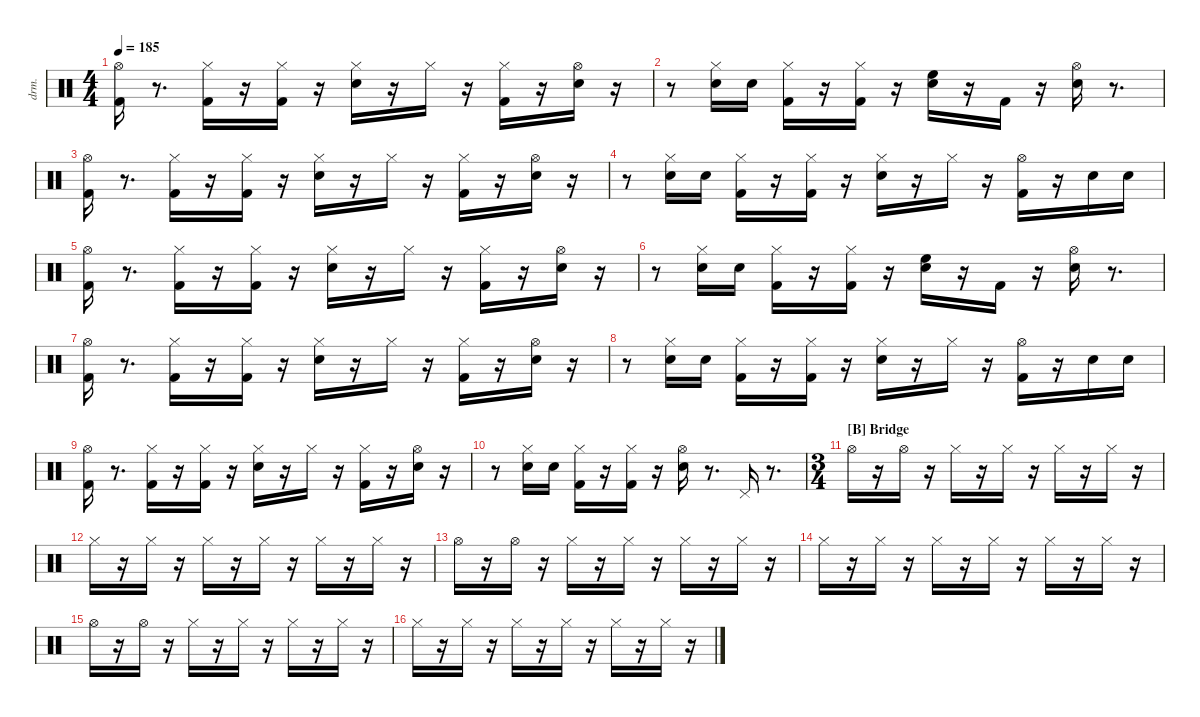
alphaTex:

\defaultSystemsLayout 4
\hideDynamics
\bracketExtendMode nobrackets
\otherSystemsTrackNameOrientation horizontal
\track ("drums" "drm.") {instrument percussion}
\staff {score}
\articulation defaults
\ts (4 4)
\tempo 185
\clef neutral
\ks aminor
("Kick (hit) 2" "Hi-Hat (open)"{acc #}).16{dy ff beam Down} r.8{d beam Down} ("Kick (hit) 2" "Hi-Hat (closed)"{acc #}).16{beam Down} r.16{beam Down} ("Kick (hit) 2" "Hi-Hat (closed)"{acc #}).16{dy pp beam Down} r.16{beam Down} ("Snare (hit) 2" "Hi-Hat (closed)"{acc #}).16{dy ff beam Down} r.16{beam Down} "Hi-Hat (closed)"{acc #}.16{dy ppp beam Down} r.16{beam Down} ("Kick (hit) 2" "Hi-Hat (closed)"{acc #}).16{dy ff beam Down} r.16{beam Down} ("Snare (hit) 2" "Hi-Hat (open)"{acc #}).16{beam Down} r.16{beam Down} |
r.8{beam Down} ("Snare (hit) 2" "Hi-Hat (closed)"{acc #}).16{beam Down} "Snare (hit) 2".16{dy mf beam Down} ("Kick (hit) 2" "Hi-Hat (closed)"{acc #}).16{dy f beam Down} r.16{beam Down} ("Kick (hit) 2" "Hi-Hat (closed)"{acc #}).16{dy ff beam Down} r.16{beam Down} ("Snare (hit) 2" "High Floor Tom (hit)").16{beam Down} r.16{beam Down} "Kick (hit) 2".16{beam Up} r.16{beam Up} ("Snare (hit) 2" "Hi-Hat (open)"{acc #}).16{beam Down} r.8{d beam Down} |
("Kick (hit) 2" "Hi-Hat (open)"{acc #}).16{beam Down} r.8{d beam Down} ("Kick (hit) 2" "Hi-Hat (closed)"{acc #}).16{dy f beam Down} r.16{beam Down} ("Kick (hit) 2" "Hi-Hat (closed)"{acc #}).16{dy ff beam Down} r.16{beam Down} ("Snare (hit) 2" "Hi-Hat (closed)"{acc #}).16{dy mf beam Down} r.16{beam Down} "Hi-Hat (closed)"{acc #}.16{dy ppp beam Down} r.16{beam Down} ("Kick (hit) 2" "Hi-Hat (closed)"{acc #}).16{dy ff beam Down} r.16{beam Down} ("Snare (hit) 2" "Hi-Hat (open)"{acc #}).16{beam Down} r.16{beam Down} |
r.8{beam Down} ("Snare (hit) 2" "Hi-Hat (closed)"{acc #}).16{beam Down} "Snare (hit) 2".16{dy mf beam Down} ("Kick (hit) 2" "Hi-Hat (closed)"{acc #}).16{dy f beam Down} r.16{beam Down} ("Kick (hit) 2" "Hi-Hat (closed)"{acc #}).16{dy ff beam Down} r.16{beam Down} ("Snare (hit) 2" "Hi-Hat (closed)"{acc #}).16{beam Down} r.16{beam Down} "Hi-Hat (closed)"{acc #}.16{dy pp beam Down} r.16{beam Down} ("Kick (hit) 2" "Hi-Hat (open)"{acc #}).16{dy ff beam Down} r.16{beam Down} "Snare (hit) 2".16{dy mf beam Down} "Snare (hit) 2".16{dy p beam Down} |
("Kick (hit) 2" "Hi-Hat (open)"{acc #}).16{dy ff beam Down} r.8{d beam Down} ("Kick (hit) 2" "Hi-Hat (closed)"{acc #}).16{dy f beam Down} r.16{beam Down} ("Kick (hit) 2" "Hi-Hat (closed)"{acc #}).16{dy pp beam Down} r.16{beam Down} ("Snare (hit) 2" "Hi-Hat (closed)"{acc #}).16{dy mf beam Down} r.16{beam Down} "Hi-Hat (closed)"{acc #}.16{dy ppp beam Down} r.16{beam Down} ("Kick (hit) 2" "Hi-Hat (closed)"{acc #}).16{dy ff beam Down} r.16{beam Down} ("Snare (hit) 2" "Hi-Hat (open)"{acc #}).16{beam Down} r.16{beam Down} |
r.8{beam Down} ("Snare (hit) 2" "Hi-Hat (closed)"{acc #}).16{beam Down} "Snare (hit) 2".16{dy mf beam Down} ("Kick (hit) 2" "Hi-Hat (closed)"{acc #}).16{dy f beam Down} r.16{beam Down} ("Kick (hit) 2" "Hi-Hat (closed)"{acc #}).16{dy ff beam Down} r.16{beam Down} ("Snare (hit) 2" "High Floor Tom (hit)").16{beam Down} r.16{beam Down} "Kick (hit) 2".16{beam Up} r.16{beam Up} ("Snare (hit) 2" "Hi-Hat (open)"{acc #}).16{beam Down} r.8{d beam Down} |
("Kick (hit) 2" "Hi-Hat (open)"{acc #}).16{beam Down} r.8{d beam Down} ("Kick (hit) 2" "Hi-Hat (closed)"{acc #}).16{dy f beam Down} r.16{beam Down} ("Kick (hit) 2" "Hi-Hat (closed)"{acc #}).16{dy ff beam Down} r.16{beam Down} ("Snare (hit) 2" "Hi-Hat (closed)"{acc #}).16{beam Down} r.16{beam Down} "Hi-Hat (closed)"{acc #}.16{dy ppp beam Down} r.16{beam Down} ("Kick (hit) 2" "Hi-Hat (closed)"{acc #}).16{dy ff beam Down} r.16{beam Down} ("Snare (hit) 2" "Hi-Hat (open)"{acc #}).16{beam Down} r.16{beam Down} |
r.8{beam Down} ("Snare (hit) 2" "Hi-Hat (closed)"{acc #}).16{beam Down} "Snare (hit) 2".16{dy mf beam Down} ("Kick (hit) 2" "Hi-Hat (closed)"{acc #}).16{dy f beam Down} r.16{beam Down} ("Kick (hit) 2" "Hi-Hat (closed)"{acc #}).16{dy ppp beam Down} r.16{beam Down} ("Snare (hit) 2" "Hi-Hat (closed)"{acc #}).16{dy ff beam Down} r.16{beam Down} "Hi-Hat (closed)"{acc #}.16{dy pp beam Down} r.16{beam Down} ("Kick (hit) 2" "Hi-Hat (open)"{acc #}).16{dy ff beam Down} r.16{beam Down} "Snare (hit) 2".16{dy mf beam Down} "Snare (hit) 2".16{dy p beam Down} |
("Kick (hit) 2" "Hi-Hat (open)"{acc #}).16{dy ff beam Down} r.8{d beam Down} ("Kick (hit) 2" "Hi-Hat (closed)"{acc #}).16{dy f beam Down} r.16{beam Down} ("Kick (hit) 2" "Hi-Hat (closed)"{acc #}).16{dy ff beam Down} r.16{beam Down} ("Snare (hit) 2" "Hi-Hat (closed)"{acc #}).16{beam Down} r.16{beam Down} "Hi-Hat (closed)"{acc #}.16{dy ppp beam Down} r.16{beam Down} ("Kick (hit) 2" "Hi-Hat (closed)"{acc #}).16{dy ff beam Down} r.16{beam Down} ("Snare (hit) 2" "Hi-Hat (open)"{acc #}).16{beam Down} r.16{beam Down} |
r.8{beam Down} ("Snare (hit) 2" "Hi-Hat (closed)"{acc #}).16{beam Down} "Snare (hit) 2".16{dy mf beam Down} ("Kick (hit) 2" "Hi-Hat (closed)"{acc #}).16{dy f beam Down} r.16{beam Down} ("Kick (hit) 2" "Hi-Hat (closed)"{acc #}).16{dy fff beam Down} r.16{beam Down} ("Snare (hit) 2" "Hi-Hat (open)"{acc #}).16{dy ff beam Down} r.8{d beam Down} "Pedal Hi-Hat (hit)"{acc #}.16{beam Up} r.8{d beam Up} |
\ts (3 4)
\section ("B" "Bridge")
"Hi-Hat (open)"{acc #}.16{dy fff beam Down} r.16{beam Down} "Hi-Hat (open)"{acc #}.16{dy p beam Down} r.16{beam Down} "Hi-Hat (closed)"{acc #}.16{beam Down} r.16{beam Down} "Hi-Hat (closed)"{acc #}.16{dy f beam Down} r.16{beam Down} "Hi-Hat (closed)"{acc #}.16{dy ppp beam Down} r.16{beam Down} "Hi-Hat (closed)"{acc #}.16{dy p beam Down} r.16{beam Down} |
"Hi-Hat (closed)"{acc #}.16{dy fff beam Down} r.16{beam Down} "Hi-Hat (closed)"{acc #}.16{dy ppp beam Down} r.16{beam Down} "Hi-Hat (closed)"{acc #}.16{beam Down} r.16{beam Down} "Hi-Hat (closed)"{acc #}.16{dy ff beam Down} r.16{beam Down} "Hi-Hat (closed)"{acc #}.16{dy pp beam Down} r.16{beam Down} "Hi-Hat (closed)"{acc #}.16{beam Down} r.16{beam Down} |
"Hi-Hat (open)"{acc #}.16{dy ff beam Down} r.16{beam Down} "Hi-Hat (open)"{acc #}.16{dy p beam Down} r.16{beam Down} "Hi-Hat (closed)"{acc #}.16{beam Down} r.16{beam Down} "Hi-Hat (closed)"{acc #}.16{dy f beam Down} r.16{beam Down} "Hi-Hat (closed)"{acc #}.16{dy ppp beam Down} r.16{beam Down} "Hi-Hat (closed)"{acc #}.16{dy p beam Down} r.16{beam Down} |
"Hi-Hat (closed)"{acc #}.16{dy fff beam Down} r.16{beam Down} "Hi-Hat (closed)"{acc #}.16{dy ppp beam Down} r.16{beam Down} "Hi-Hat (closed)"{acc #}.16{dy ff beam Down} r.16{beam Down} "Hi-Hat (closed)"{acc #}.16{dy pp beam Down} r.16{beam Down} "Hi-Hat (closed)"{acc #}.16{dy fff beam Down} r.16{beam Down} "Hi-Hat (closed)"{acc #}.16{dy mp beam Down} r.16{beam Down} |
"Hi-Hat (open)"{acc #}.16{dy fff beam Down} r.16{beam Down} "Hi-Hat (open)"{acc #}.16{dy p beam Down} r.16{beam Down} "Hi-Hat (closed)"{acc #}.16{beam Down} r.16{beam Down} "Hi-Hat (closed)"{acc #}.16{dy f beam Down} r.16{beam Down} "Hi-Hat (closed)"{acc #}.16{dy ppp beam Down} r.16{beam Down} "Hi-Hat (closed)"{acc #}.16{dy p beam Down} r.16{beam Down} |
"Hi-Hat (closed)"{acc #}.16{dy fff beam Down} r.16{beam Down} "Hi-Hat (closed)"{acc #}.16{dy ppp beam Down} r.16{beam Down} "Hi-Hat (closed)"{acc #}.16{beam Down} r.16{beam Down} "Hi-Hat (closed)"{acc #}.16{dy ff beam Down} r.16{beam Down} "Hi-Hat (closed)"{acc #}.16{dy pp beam Down} r.16{beam Down} "Hi-Hat (closed)"{acc #}.16{beam Down} r.16{beam Down}
